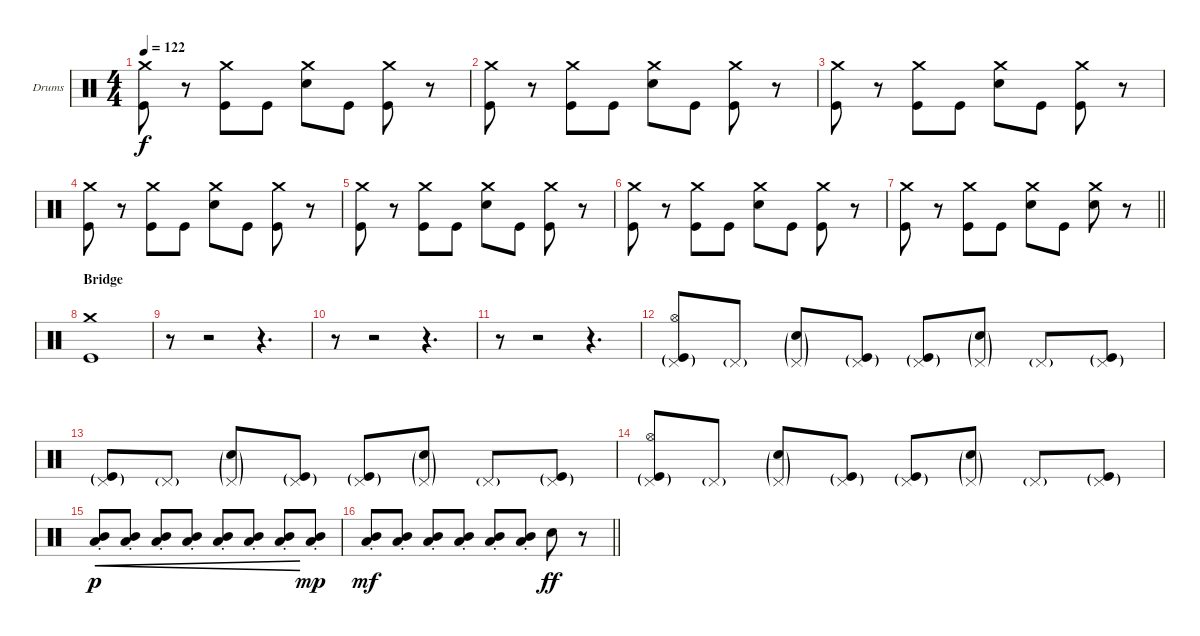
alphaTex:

\bracketExtendMode groupsimilarinstruments
\firstSystemTrackNameOrientation horizontal
\otherSystemsTrackNameOrientation horizontal
\track ("Drumkit" "Drums") {instrument percussion}
\staff {score}
\articulation defaults
\ts (4 4)
\tempo 122
\clef neutral
\ks c
("Crash medium (hit)" "Kick (hit)").8{dy f} r.8 ("Crash medium (hit)" "Kick (hit)").8 "Kick (hit)".8 ("Crash medium (hit)" "Snare (hit) 2").8 "Kick (hit)".8 ("Crash medium (hit)" "Kick (hit)").8 r.8 |
("Crash medium (hit)" "Kick (hit)").8 r.8 ("Crash medium (hit)" "Kick (hit)").8 "Kick (hit)".8 ("Crash medium (hit)" "Snare (hit) 2").8 "Kick (hit)".8 ("Crash medium (hit)" "Kick (hit)").8 r.8 |
("Crash medium (hit)" "Kick (hit)").8 r.8 ("Crash medium (hit)" "Kick (hit)").8 "Kick (hit)".8 ("Crash medium (hit)" "Snare (hit) 2").8 "Kick (hit)".8 ("Crash medium (hit)" "Kick (hit)").8 r.8 |
("Crash medium (hit)" "Kick (hit)").8 r.8 ("Crash medium (hit)" "Kick (hit)").8 "Kick (hit)".8 ("Crash medium (hit)" "Snare (hit) 2").8 "Kick (hit)".8 ("Crash medium (hit)" "Kick (hit)").8 r.8 |
("Crash medium (hit)" "Kick (hit)").8 r.8 ("Crash medium (hit)" "Kick (hit)").8 "Kick (hit)".8 ("Crash medium (hit)" "Snare (hit) 2").8 "Kick (hit)".8 ("Crash medium (hit)" "Kick (hit)").8 r.8 |
("Crash medium (hit)" "Kick (hit)").8 r.8 ("Crash medium (hit)" "Kick (hit)").8 "Kick (hit)".8 ("Crash medium (hit)" "Snare (hit) 2").8 "Kick (hit)".8 ("Crash medium (hit)" "Kick (hit)").8 r.8 |
\barLineRight lightlight
("Crash medium (hit)" "Kick (hit)").8 r.8 ("Crash medium (hit)" "Kick (hit)").8 "Kick (hit)".8 ("Crash medium (hit)" "Snare (hit) 2").8 "Kick (hit)".8 ("Crash medium (hit)" "Snare (hit) 2").8 r.8 |
\section ("" "Bridge")
("Crash medium (hit)" "Kick (hit)").1 |
r.8 r.2 r.4{d} |
r.8 r.2 r.4{d} |
r.8 r.2 r.4{d} |
("Hi-Hat (open)" "Kick (hit)"{g} "Pedal Hi-Hat (hit)"{g}).8 "Pedal Hi-Hat (hit)"{g}.8 ("Snare (hit) 2"{g} "Pedal Hi-Hat (hit)"{g}).8 ("Kick (hit)"{g} "Pedal Hi-Hat (hit)"{g}).8 ("Kick (hit)"{g} "Pedal Hi-Hat (hit)"{g}).8 ("Snare (hit) 2"{g} "Pedal Hi-Hat (hit)"{g}).8 "Pedal Hi-Hat (hit)"{g}.8 ("Kick (hit)"{g} "Pedal Hi-Hat (hit)"{g}).8 |
("Kick (hit)"{g} "Pedal Hi-Hat (hit)"{g}).8 "Pedal Hi-Hat (hit)"{g}.8 ("Snare (hit) 2"{g} "Pedal Hi-Hat (hit)"{g}).8 ("Kick (hit)"{g} "Pedal Hi-Hat (hit)"{g}).8 ("Kick (hit)"{g} "Pedal Hi-Hat (hit)"{g}).8 ("Snare (hit) 2"{g} "Pedal Hi-Hat (hit)"{g}).8 "Pedal Hi-Hat (hit)"{g}.8 ("Kick (hit)"{g} "Pedal Hi-Hat (hit)"{g}).8 |
("Hi-Hat (open)" "Kick (hit)"{g} "Pedal Hi-Hat (hit)"{g}).8 "Pedal Hi-Hat (hit)"{g}.8 ("Snare (hit) 2"{g} "Pedal Hi-Hat (hit)"{g}).8 ("Kick (hit)"{g} "Pedal Hi-Hat (hit)"{g}).8 ("Kick (hit)"{g} "Pedal Hi-Hat (hit)"{g}).8 ("Snare (hit) 2"{g} "Pedal Hi-Hat (hit)"{g}).8 "Pedal Hi-Hat (hit)"{g}.8 ("Kick (hit)"{g} "Pedal Hi-Hat (hit)"{g}).8 |
("Mid Tom (hit)"{st} "Low Tom (hit)"{st}).8{cre dy p} ("Mid Tom (hit)"{st} "Low Tom (hit)"{st}).8{cre} ("Mid Tom (hit)"{st} "Low Tom (hit)"{st}).8{cre} ("Mid Tom (hit)"{st} "Low Tom (hit)"{st}).8{cre} ("Mid Tom (hit)"{st} "Low Tom (hit)"{st}).8{cre} ("Mid Tom (hit)"{st} "Low Tom (hit)"{st}).8{cre} ("Mid Tom (hit)"{st} "Low Tom (hit)"{st}).8{cre} ("Mid Tom (hit)"{st} "Low Tom (hit)"{st}).8{dy mp} |
\barLineRight lightlight
("Mid Tom (hit)"{st} "Low Tom (hit)"{st}).8{dy mf} ("Mid Tom (hit)"{st} "Low Tom (hit)"{st}).8 ("Mid Tom (hit)"{st} "Low Tom (hit)"{st}).8 ("Mid Tom (hit)"{st} "Low Tom (hit)"{st}).8 ("Mid Tom (hit)"{st} "Low Tom (hit)"{st}).8 ("Mid Tom (hit)"{st} "Low Tom (hit)"{st}).8 "Snare (hit) 2".8{dy ff} r.8
